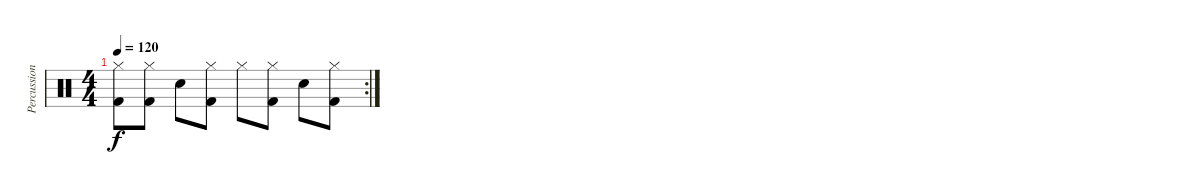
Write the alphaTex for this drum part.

\track ("Percussion" "Percussion") {instrument percussion}
\staff {score}
\articulation defaults
\rc 2
\ts (4 4)
\tempo 120
\clef neutral
\ks c
("Hi-Hat (closed)" "Kick (hit) 2").8{dy f} ("Hi-Hat (closed)" "Kick (hit) 2").8 "Electric Snare (hit)".8 ("Hi-Hat (closed)" "Kick (hit) 2").8 "Hi-Hat (closed)".8 ("Hi-Hat (closed)" "Kick (hit) 2").8 "Electric Snare (hit)".8 ("Hi-Hat (closed)" "Kick (hit) 2").8
